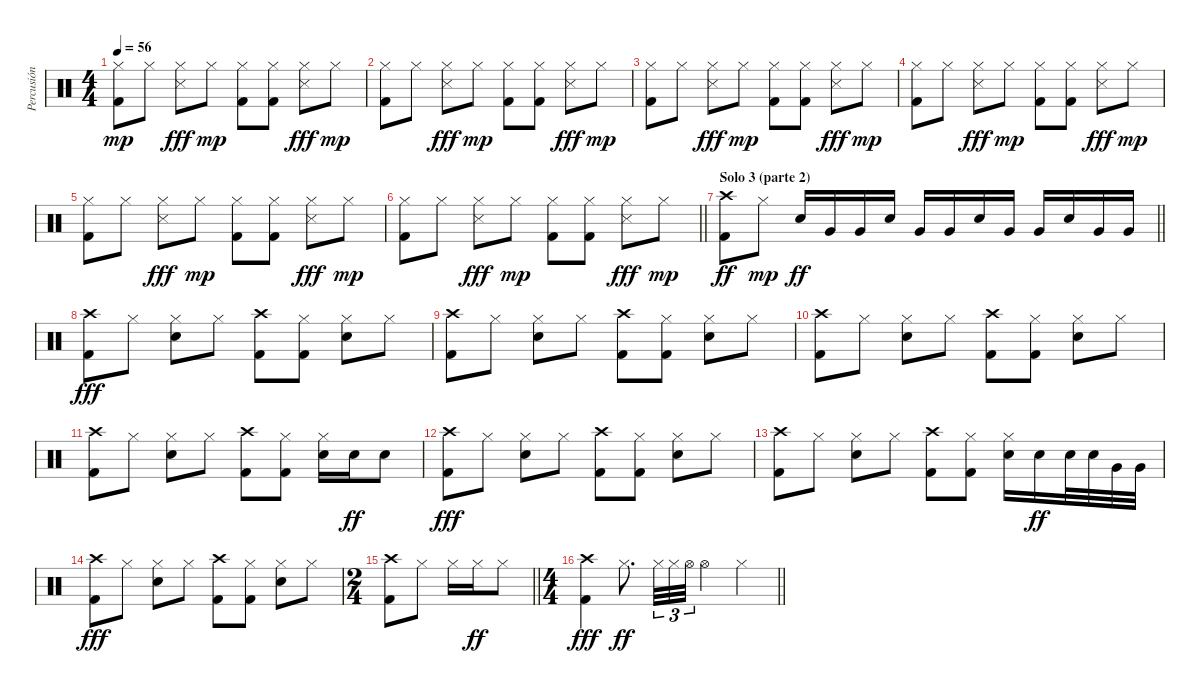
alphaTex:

\track ("Percusión" "Percusión") {instrument percussion}
\staff {score}
\articulation defaults
\ts (4 4)
\tempo 56
\clef neutral
\ks c
("Hi-Hat (closed)" "Kick (hit) 2").8{dy mp} "Hi-Hat (closed)".8 ("Hi-Hat (closed)" "Metronome (hit)").8{dy fff} "Hi-Hat (closed)".8{dy mp} ("Hi-Hat (closed)" "Kick (hit) 2").8 ("Hi-Hat (closed)" "Kick (hit) 2").8 ("Hi-Hat (closed)" "Metronome (hit)").8{dy fff} "Hi-Hat (closed)".8{dy mp} |
("Hi-Hat (closed)" "Kick (hit) 2").8 "Hi-Hat (closed)".8 ("Hi-Hat (closed)" "Metronome (hit)").8{dy fff} "Hi-Hat (closed)".8{dy mp} ("Hi-Hat (closed)" "Kick (hit) 2").8 ("Hi-Hat (closed)" "Kick (hit) 2").8 ("Hi-Hat (closed)" "Metronome (hit)").8{dy fff} "Hi-Hat (closed)".8{dy mp} |
("Hi-Hat (closed)" "Kick (hit) 2").8 "Hi-Hat (closed)".8 ("Hi-Hat (closed)" "Metronome (hit)").8{dy fff} "Hi-Hat (closed)".8{dy mp} ("Hi-Hat (closed)" "Kick (hit) 2").8 ("Hi-Hat (closed)" "Kick (hit) 2").8 ("Hi-Hat (closed)" "Metronome (hit)").8{dy fff} "Hi-Hat (closed)".8{dy mp} |
("Hi-Hat (closed)" "Kick (hit) 2").8 "Hi-Hat (closed)".8 ("Hi-Hat (closed)" "Metronome (hit)").8{dy fff} "Hi-Hat (closed)".8{dy mp} ("Hi-Hat (closed)" "Kick (hit) 2").8 ("Hi-Hat (closed)" "Kick (hit) 2").8 ("Hi-Hat (closed)" "Metronome (hit)").8{dy fff} "Hi-Hat (closed)".8{dy mp} |
("Hi-Hat (closed)" "Kick (hit) 2").8 "Hi-Hat (closed)".8 ("Hi-Hat (closed)" "Metronome (hit)").8{dy fff} "Hi-Hat (closed)".8{dy mp} ("Hi-Hat (closed)" "Kick (hit) 2").8 ("Hi-Hat (closed)" "Kick (hit) 2").8 ("Hi-Hat (closed)" "Metronome (hit)").8{dy fff} "Hi-Hat (closed)".8{dy mp} |
\barLineRight lightlight
("Hi-Hat (closed)" "Kick (hit) 2").8 "Hi-Hat (closed)".8 ("Hi-Hat (closed)" "Metronome (hit)").8{dy fff} "Hi-Hat (closed)".8{dy mp} ("Hi-Hat (closed)" "Kick (hit) 2").8 ("Hi-Hat (closed)" "Kick (hit) 2").8 ("Hi-Hat (closed)" "Metronome (hit)").8{dy fff} "Hi-Hat (closed)".8{dy mp} |
\section ("" "Solo 3 (parte 2)")
\barLineRight lightlight
("Crash high (hit)" "Kick (hit) 2").8{dy ff} "Hi-Hat (closed)".8{dy mp} "Snare (hit) 2".16{dy ff} "Very Low Tom (hit)".16 "Very Low Tom (hit)".16 "Snare (hit) 2".16 "Very Low Tom (hit)".16 "Very Low Tom (hit)".16 "Snare (hit) 2".16 "Very Low Tom (hit)".16 "Very Low Tom (hit)".16 "Snare (hit) 2".16 "Very Low Tom (hit)".16 "Very Low Tom (hit)".16 |
("Crash high (hit)" "Kick (hit) 2").8{dy fff} "Hi-Hat (closed)".8 ("Hi-Hat (closed)" "Snare (hit) 2").8 "Hi-Hat (closed)".8 ("Crash high (hit)" "Kick (hit) 2").8 ("Hi-Hat (closed)" "Kick (hit) 2").8 ("Hi-Hat (closed)" "Snare (hit) 2").8 "Hi-Hat (closed)".8 |
("Crash high (hit)" "Kick (hit) 2").8 "Hi-Hat (closed)".8 ("Hi-Hat (closed)" "Snare (hit) 2").8 "Hi-Hat (closed)".8 ("Crash high (hit)" "Kick (hit) 2").8 ("Hi-Hat (closed)" "Kick (hit) 2").8 ("Hi-Hat (closed)" "Snare (hit) 2").8 "Hi-Hat (closed)".8 |
("Crash high (hit)" "Kick (hit) 2").8 "Hi-Hat (closed)".8 ("Hi-Hat (closed)" "Snare (hit) 2").8 "Hi-Hat (closed)".8 ("Crash high (hit)" "Kick (hit) 2").8 ("Hi-Hat (closed)" "Kick (hit) 2").8 ("Hi-Hat (closed)" "Snare (hit) 2").8 "Hi-Hat (closed)".8 |
("Crash high (hit)" "Kick (hit) 2").8 "Hi-Hat (closed)".8 ("Hi-Hat (closed)" "Snare (hit) 2").8 "Hi-Hat (closed)".8 ("Crash high (hit)" "Kick (hit) 2").8 ("Hi-Hat (closed)" "Kick (hit) 2").8 ("Hi-Hat (closed)" "Snare (hit) 2").16 "Snare (hit) 2".16{dy ff} "Snare (hit) 2".8 |
("Crash high (hit)" "Kick (hit) 2").8{dy fff} "Hi-Hat (closed)".8 ("Hi-Hat (closed)" "Snare (hit) 2").8 "Hi-Hat (closed)".8 ("Crash high (hit)" "Kick (hit) 2").8 ("Hi-Hat (closed)" "Kick (hit) 2").8 ("Hi-Hat (closed)" "Snare (hit) 2").8 "Hi-Hat (closed)".8 |
("Crash high (hit)" "Kick (hit) 2").8 "Hi-Hat (closed)".8 ("Hi-Hat (closed)" "Snare (hit) 2").8 "Hi-Hat (closed)".8 ("Crash high (hit)" "Kick (hit) 2").8 ("Hi-Hat (closed)" "Kick (hit) 2").8 ("Hi-Hat (closed)" "Snare (hit) 2").16 "Snare (hit) 2".16{dy ff} "Snare (hit) 2".32 "Snare (hit) 2".32 "Very Low Tom (hit)".32 "Very Low Tom (hit)".32 |
("Crash high (hit)" "Kick (hit) 2").8{dy fff} "Hi-Hat (closed)".8 ("Hi-Hat (closed)" "Snare (hit) 2").8 "Hi-Hat (closed)".8 ("Crash high (hit)" "Kick (hit) 2").8 ("Hi-Hat (closed)" "Kick (hit) 2").8 ("Hi-Hat (closed)" "Snare (hit) 2").8 "Hi-Hat (closed)".8 |
\ts (2 4)
\barLineRight lightlight
("Crash high (hit)" "Kick (hit) 2").8 "Hi-Hat (closed)".8 "Hi-Hat (closed)".16 "Hi-Hat (closed)".16{dy ff} "Hi-Hat (closed)".8 |
\ts (4 4)
\barLineRight lightlight
("Crash high (hit)" "Kick (hit) 2").4{dy fff} "Hi-Hat (closed)".8{d dy ff} "Hi-Hat (closed)".32{tu (3 2)} "Hi-Hat (closed)".32{tu (3 2)} "Hi-Hat (open)".32{tu (3 2)} "Hi-Hat (open)".4 "Hi-Hat (closed)".4
